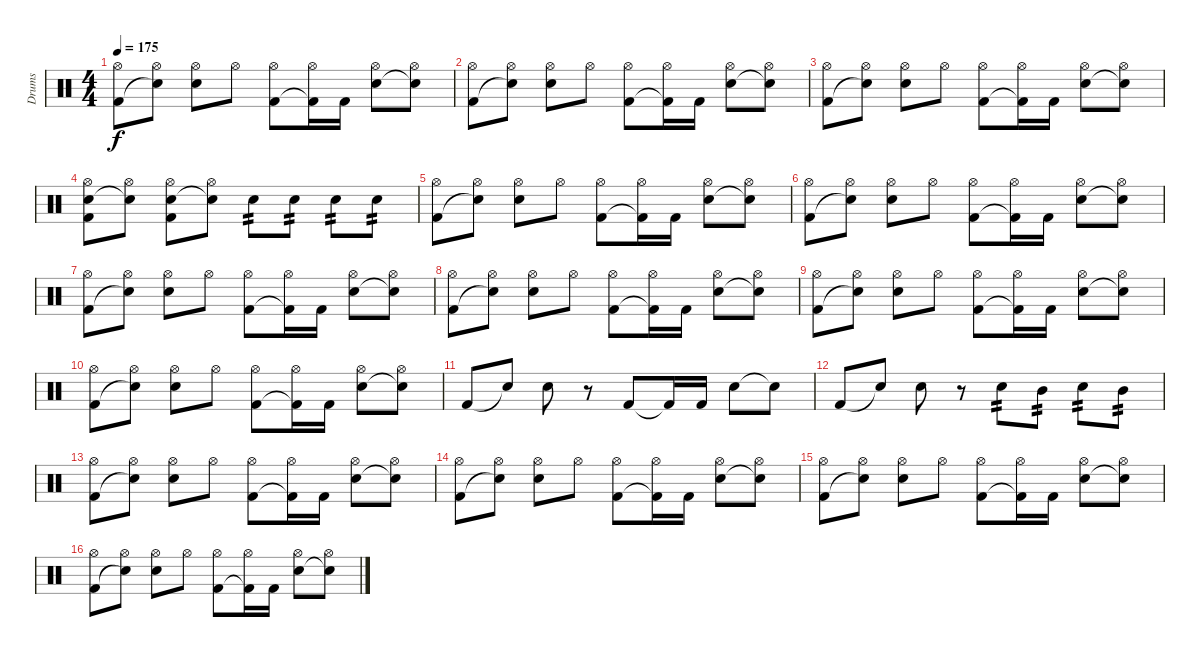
\track ("Drums" "Drums") {instrument percussion}
\staff {score}
\articulation defaults
\ts (4 4)
\tempo 175
\clef neutral
\ks c
("Hi-Hat (open)" "Kick (hit) 2").8{dy f} ("Hi-Hat (open)" "Snare (hit)"{t}).8 ("Hi-Hat (open)" "Electric Snare (hit)").8 "Hi-Hat (open)".8 ("Hi-Hat (open)" "Kick (hit) 2").8 ("Hi-Hat (open)" "Kick (hit) 2"{t}).16 "Kick (hit) 2".16 ("Hi-Hat (open)" "Electric Snare (hit)").8 ("Hi-Hat (open)" "Snare (hit)"{t}).8 |
("Hi-Hat (open)" "Kick (hit) 2").8 ("Hi-Hat (open)" "Snare (hit)"{t}).8 ("Hi-Hat (open)" "Electric Snare (hit)").8 "Hi-Hat (open)".8 ("Hi-Hat (open)" "Kick (hit) 2").8 ("Hi-Hat (open)" "Kick (hit) 2"{t}).16 "Kick (hit) 2".16 ("Hi-Hat (open)" "Electric Snare (hit)").8 ("Hi-Hat (open)" "Snare (hit)"{t}).8 |
("Hi-Hat (open)" "Kick (hit) 2").8 ("Hi-Hat (open)" "Snare (hit)"{t}).8 ("Hi-Hat (open)" "Electric Snare (hit)").8 "Hi-Hat (open)".8 ("Hi-Hat (open)" "Kick (hit) 2").8 ("Hi-Hat (open)" "Kick (hit) 2"{t}).16 "Kick (hit) 2".16 ("Hi-Hat (open)" "Electric Snare (hit)").8 ("Hi-Hat (open)" "Snare (hit)"{t}).8 |
("Hi-Hat (open)" "Electric Snare (hit)" "Kick (hit) 2").8 ("Hi-Hat (open)" "Snare (hit)"{t}).8 ("Hi-Hat (open)" "Electric Snare (hit)" "Kick (hit) 2").8 ("Hi-Hat (open)" "Snare (hit)"{t}).8 "Electric Snare (hit)".8{tp 2} "Electric Snare (hit)".8{tp 2} "Electric Snare (hit)".8{tp 2} "Electric Snare (hit)".8{tp 2} |
("Hi-Hat (open)" "Kick (hit) 2").8 ("Hi-Hat (open)" "Snare (hit)"{t}).8 ("Hi-Hat (open)" "Electric Snare (hit)").8 "Hi-Hat (open)".8 ("Hi-Hat (open)" "Kick (hit) 2").8 ("Hi-Hat (open)" "Kick (hit) 2"{t}).16 "Kick (hit) 2".16 ("Hi-Hat (open)" "Electric Snare (hit)").8 ("Hi-Hat (open)" "Snare (hit)"{t}).8 |
("Hi-Hat (open)" "Kick (hit) 2").8 ("Hi-Hat (open)" "Snare (hit)"{t}).8 ("Hi-Hat (open)" "Electric Snare (hit)").8 "Hi-Hat (open)".8 ("Hi-Hat (open)" "Kick (hit) 2").8 ("Hi-Hat (open)" "Kick (hit) 2"{t}).16 "Kick (hit) 2".16 ("Hi-Hat (open)" "Electric Snare (hit)").8 ("Hi-Hat (open)" "Snare (hit)"{t}).8 |
("Hi-Hat (open)" "Kick (hit) 2").8 ("Hi-Hat (open)" "Snare (hit)"{t}).8 ("Hi-Hat (open)" "Electric Snare (hit)").8 "Hi-Hat (open)".8 ("Hi-Hat (open)" "Kick (hit) 2").8 ("Hi-Hat (open)" "Kick (hit) 2"{t}).16 "Kick (hit) 2".16 ("Hi-Hat (open)" "Electric Snare (hit)").8 ("Hi-Hat (open)" "Snare (hit)"{t}).8 |
("Hi-Hat (open)" "Kick (hit) 2").8 ("Hi-Hat (open)" "Snare (hit)"{t}).8 ("Hi-Hat (open)" "Electric Snare (hit)").8 "Hi-Hat (open)".8 ("Hi-Hat (open)" "Kick (hit) 2").8 ("Hi-Hat (open)" "Kick (hit) 2"{t}).16 "Kick (hit) 2".16 ("Hi-Hat (open)" "Electric Snare (hit)").8 ("Hi-Hat (open)" "Snare (hit)"{t}).8 |
("Hi-Hat (open)" "Kick (hit) 2").8 ("Hi-Hat (open)" "Snare (hit)"{t}).8 ("Hi-Hat (open)" "Electric Snare (hit)").8 "Hi-Hat (open)".8 ("Hi-Hat (open)" "Kick (hit) 2").8 ("Hi-Hat (open)" "Kick (hit) 2"{t}).16 "Kick (hit) 2".16 ("Hi-Hat (open)" "Electric Snare (hit)").8 ("Hi-Hat (open)" "Snare (hit)"{t}).8 |
("Hi-Hat (open)" "Kick (hit) 2").8 ("Hi-Hat (open)" "Snare (hit)"{t}).8 ("Hi-Hat (open)" "Electric Snare (hit)").8 "Hi-Hat (open)".8 ("Hi-Hat (open)" "Kick (hit) 2").8 ("Hi-Hat (open)" "Kick (hit) 2"{t}).16 "Kick (hit) 2".16 ("Hi-Hat (open)" "Electric Snare (hit)").8 ("Hi-Hat (open)" "Snare (hit)"{t}).8 |
"Kick (hit) 2".8 "Snare (hit)"{t}.8 "Electric Snare (hit)".8 r.8 "Kick (hit) 2".8 "Kick (hit) 2"{t}.16 "Kick (hit) 2".16 "Electric Snare (hit)".8 "Snare (hit)"{t}.8 |
"Kick (hit) 2".8 "Snare (hit)"{t}.8 "Electric Snare (hit)".8 r.8 "Electric Snare (hit)".8{tp 2} "Mid Tom (hit)".8{tp 2} "Electric Snare (hit)".8{tp 2} "Mid Tom (hit)".8{tp 2} |
("Hi-Hat (open)" "Kick (hit) 2").8 ("Hi-Hat (open)" "Snare (hit)"{t}).8 ("Hi-Hat (open)" "Electric Snare (hit)").8 "Hi-Hat (open)".8 ("Hi-Hat (open)" "Kick (hit) 2").8 ("Hi-Hat (open)" "Kick (hit) 2"{t}).16 "Kick (hit) 2".16 ("Hi-Hat (open)" "Electric Snare (hit)").8 ("Hi-Hat (open)" "Snare (hit)"{t}).8 |
("Hi-Hat (open)" "Kick (hit) 2").8 ("Hi-Hat (open)" "Snare (hit)"{t}).8 ("Hi-Hat (open)" "Electric Snare (hit)").8 "Hi-Hat (open)".8 ("Hi-Hat (open)" "Kick (hit) 2").8 ("Hi-Hat (open)" "Kick (hit) 2"{t}).16 "Kick (hit) 2".16 ("Hi-Hat (open)" "Electric Snare (hit)").8 ("Hi-Hat (open)" "Snare (hit)"{t}).8 |
("Hi-Hat (open)" "Kick (hit) 2").8 ("Hi-Hat (open)" "Snare (hit)"{t}).8 ("Hi-Hat (open)" "Electric Snare (hit)").8 "Hi-Hat (open)".8 ("Hi-Hat (open)" "Kick (hit) 2").8 ("Hi-Hat (open)" "Kick (hit) 2"{t}).16 "Kick (hit) 2".16 ("Hi-Hat (open)" "Electric Snare (hit)").8 ("Hi-Hat (open)" "Snare (hit)"{t}).8 |
("Hi-Hat (open)" "Kick (hit) 2").8 ("Hi-Hat (open)" "Snare (hit)"{t}).8 ("Hi-Hat (open)" "Electric Snare (hit)").8 "Hi-Hat (open)".8 ("Hi-Hat (open)" "Kick (hit) 2").8 ("Hi-Hat (open)" "Kick (hit) 2"{t}).16 "Kick (hit) 2".16 ("Hi-Hat (open)" "Electric Snare (hit)").8 ("Hi-Hat (open)" "Snare (hit)"{t}).8
